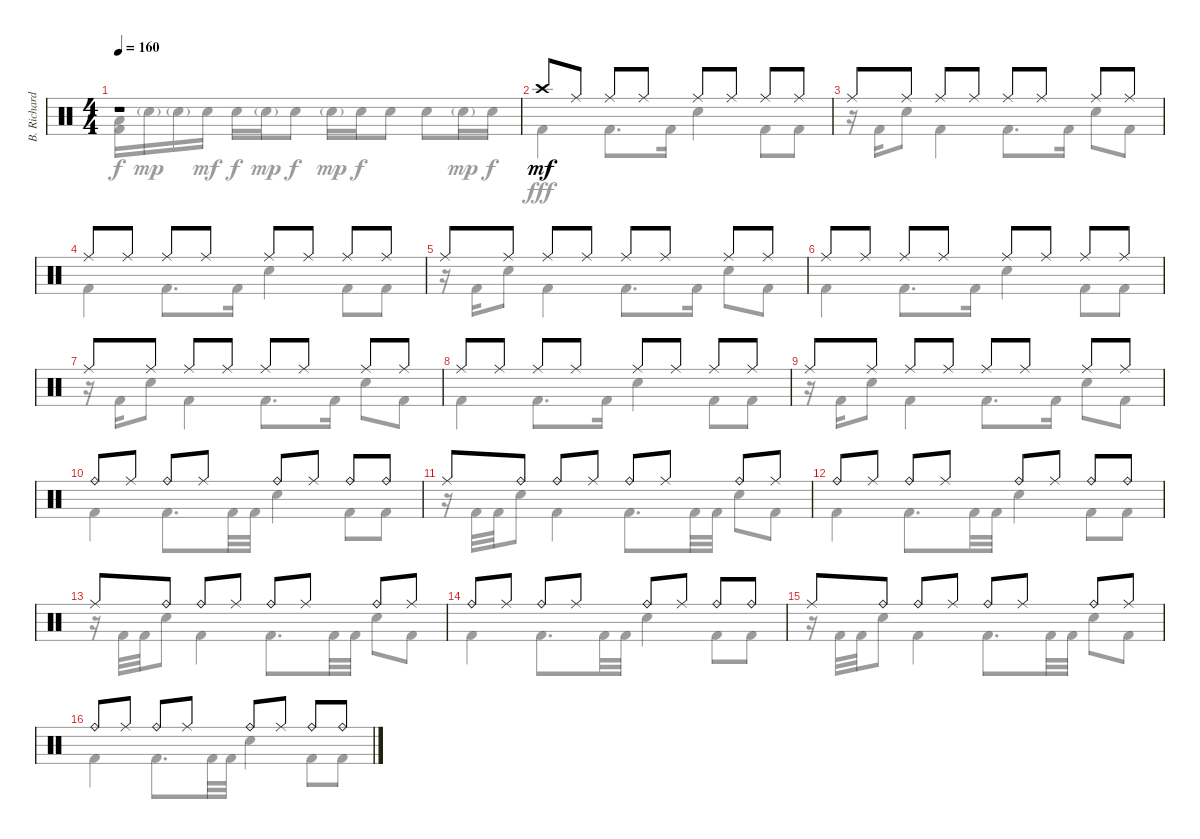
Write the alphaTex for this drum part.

\track ("B. Richardson Drums" "B. Richard") {instrument percussion}
\staff {score}
\articulation defaults
\voice
\ts (4 4)
\tempo 160
\clef neutral
\ks c
r.1{dy mf} |
"Crash high (hit)".8 "Ride (middle)".8 "Ride (middle)".8 "Ride (middle)".8 "Ride (middle)".8 "Ride (middle)".8 "Ride (middle)".8 "Ride (middle)".8 |
"Ride (middle)".8 "Ride (middle)".8 "Ride (middle)".8 "Ride (middle)".8 "Ride (middle)".8 "Ride (middle)".8 "Ride (middle)".8 "Ride (middle)".8 |
"Ride (middle)".8 "Ride (middle)".8 "Ride (middle)".8 "Ride (middle)".8 "Ride (middle)".8 "Ride (middle)".8 "Ride (middle)".8 "Ride (middle)".8 |
"Ride (middle)".8 "Ride (middle)".8 "Ride (middle)".8 "Ride (middle)".8 "Ride (middle)".8 "Ride (middle)".8 "Ride (middle)".8 "Ride (middle)".8 |
"Ride (middle)".8 "Ride (middle)".8 "Ride (middle)".8 "Ride (middle)".8 "Ride (middle)".8 "Ride (middle)".8 "Ride (middle)".8 "Ride (middle)".8 |
"Ride (middle)".8 "Ride (middle)".8 "Ride (middle)".8 "Ride (middle)".8 "Ride (middle)".8 "Ride (middle)".8 "Ride (middle)".8 "Ride (middle)".8 |
"Ride (middle)".8 "Ride (middle)".8 "Ride (middle)".8 "Ride (middle)".8 "Ride (middle)".8 "Ride (middle)".8 "Ride (middle)".8 "Ride (middle)".8 |
"Ride (middle)".8 "Ride (middle)".8 "Ride (middle)".8 "Ride (middle)".8 "Ride (middle)".8 "Ride (middle)".8 "Ride (middle)".8 "Ride (middle)".8 |
"Ride (bell)".8 "Ride (middle)".8 "Ride (bell)".8 "Ride (middle)".8 "Ride (bell)".8 "Ride (middle)".8 "Ride (bell)".8 "Ride (bell)".8 |
"Ride (middle)".8 "Ride (bell)".8 "Ride (bell)".8 "Ride (middle)".8 "Ride (bell)".8 "Ride (middle)".8 "Ride (bell)".8 "Ride (middle)".8 |
"Ride (bell)".8 "Ride (middle)".8 "Ride (bell)".8 "Ride (middle)".8 "Ride (bell)".8 "Ride (middle)".8 "Ride (bell)".8 "Ride (bell)".8 |
"Ride (middle)".8 "Ride (bell)".8 "Ride (bell)".8 "Ride (middle)".8 "Ride (bell)".8 "Ride (middle)".8 "Ride (bell)".8 "Ride (middle)".8 |
"Ride (bell)".8 "Ride (middle)".8 "Ride (bell)".8 "Ride (middle)".8 "Ride (bell)".8 "Ride (middle)".8 "Ride (bell)".8 "Ride (bell)".8 |
"Ride (middle)".8 "Ride (bell)".8 "Ride (bell)".8 "Ride (middle)".8 "Ride (bell)".8 "Ride (middle)".8 "Ride (bell)".8 "Ride (middle)".8 |
"Ride (bell)".8 "Ride (middle)".8 "Ride (bell)".8 "Ride (middle)".8 "Ride (bell)".8 "Ride (middle)".8 "Ride (bell)".8 "Ride (bell)".8
\voice
\clef neutral
\ottava regular
\simile none
\ks c
("Low Tom (hit)" "Kick (hit) 2").16{dy f} "Electric Snare (hit)"{g}.16{dy mp} "Electric Snare (hit)"{g}.16 "Electric Snare (hit)".16{dy mf} "Electric Snare (hit)".16{dy f} "Electric Snare (hit)"{g}.16{dy mp} "Electric Snare (hit)".8{dy f} "Electric Snare (hit)"{g}.16{dy mp} "Electric Snare (hit)".16{dy f} "Electric Snare (hit)".8 "Electric Snare (hit)".8 "Electric Snare (hit)"{g}.16{dy mp} "Electric Snare (hit)".16{dy f} |
"Kick (hit) 2".4{dy fff} "Kick (hit) 2".8{d} "Kick (hit) 2".16 "Electric Snare (hit)".4 "Kick (hit) 2".8 "Kick (hit) 2".8 |
r.16 "Kick (hit) 2".16 "Electric Snare (hit)".8 "Kick (hit) 2".4 "Kick (hit) 2".8{d} "Kick (hit) 2".16 "Electric Snare (hit)".8 "Kick (hit) 2".8 |
"Kick (hit) 2".4 "Kick (hit) 2".8{d} "Kick (hit) 2".16 "Electric Snare (hit)".4 "Kick (hit) 2".8 "Kick (hit) 2".8 |
r.16 "Kick (hit) 2".16 "Electric Snare (hit)".8 "Kick (hit) 2".4 "Kick (hit) 2".8{d} "Kick (hit) 2".16 "Electric Snare (hit)".8 "Kick (hit) 2".8 |
"Kick (hit) 2".4 "Kick (hit) 2".8{d} "Kick (hit) 2".16 "Electric Snare (hit)".4 "Kick (hit) 2".8 "Kick (hit) 2".8 |
r.16 "Kick (hit) 2".16 "Electric Snare (hit)".8 "Kick (hit) 2".4 "Kick (hit) 2".8{d} "Kick (hit) 2".16 "Electric Snare (hit)".8 "Kick (hit) 2".8 |
"Kick (hit) 2".4 "Kick (hit) 2".8{d} "Kick (hit) 2".16 "Electric Snare (hit)".4 "Kick (hit) 2".8 "Kick (hit) 2".8 |
r.16 "Kick (hit) 2".16 "Electric Snare (hit)".8 "Kick (hit) 2".4 "Kick (hit) 2".8{d} "Kick (hit) 2".16 "Electric Snare (hit)".8 "Kick (hit) 2".8 |
"Kick (hit) 2".4 "Kick (hit) 2".8{d} "Kick (hit) 2".32 "Kick (hit) 2".32 "Electric Snare (hit)".4 "Kick (hit) 2".8 "Kick (hit) 2".8 |
r.16 "Kick (hit) 2".32 "Kick (hit) 2".32 "Electric Snare (hit)".8 "Kick (hit) 2".4 "Kick (hit) 2".8{d} "Kick (hit) 2".32 "Kick (hit) 2".32 "Electric Snare (hit)".8 "Kick (hit) 2".8 |
"Kick (hit) 2".4 "Kick (hit) 2".8{d} "Kick (hit) 2".32 "Kick (hit) 2".32 "Electric Snare (hit)".4 "Kick (hit) 2".8 "Kick (hit) 2".8 |
r.16 "Kick (hit) 2".32 "Kick (hit) 2".32 "Electric Snare (hit)".8 "Kick (hit) 2".4 "Kick (hit) 2".8{d} "Kick (hit) 2".32 "Kick (hit) 2".32 "Electric Snare (hit)".8 "Kick (hit) 2".8 |
"Kick (hit) 2".4 "Kick (hit) 2".8{d} "Kick (hit) 2".32 "Kick (hit) 2".32 "Electric Snare (hit)".4 "Kick (hit) 2".8 "Kick (hit) 2".8 |
r.16 "Kick (hit) 2".32 "Kick (hit) 2".32 "Electric Snare (hit)".8 "Kick (hit) 2".4 "Kick (hit) 2".8{d} "Kick (hit) 2".32 "Kick (hit) 2".32 "Electric Snare (hit)".8 "Kick (hit) 2".8 |
"Kick (hit) 2".4 "Kick (hit) 2".8{d} "Kick (hit) 2".32 "Kick (hit) 2".32 "Electric Snare (hit)".4 "Kick (hit) 2".8 "Kick (hit) 2".8
